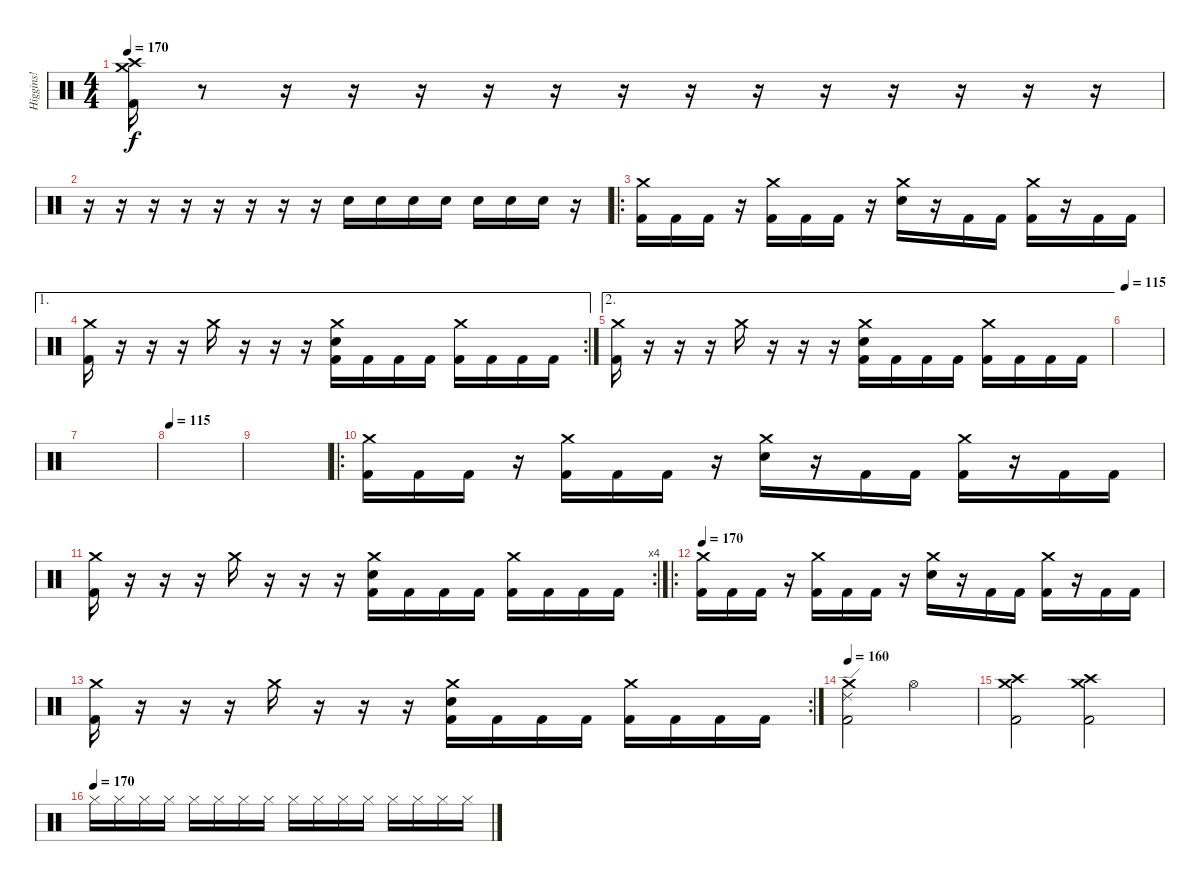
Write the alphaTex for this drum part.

\track ("Higgins!" "Higgins!") {instrument percussion}
\staff {score}
\articulation defaults
\ts (4 4)
\tempo 170
\clef neutral
\ks c
("Crash medium (hit)" "Crash high (hit)" "Kick (hit) 2").16{dy f} r.8 r.16 r.16 r.16 r.16 r.16 r.16 r.16 r.16 r.16 r.16 r.16 r.16 r.16 |
r.16 r.16 r.16 r.16 r.16 r.16 r.16 r.16 "Snare (hit) 2".16 "Snare (hit) 2".16 "Snare (hit) 2".16 "Snare (hit) 2".16 "Snare (hit) 2".16 "Snare (hit) 2".16 "Snare (hit) 2".16 r.16 |
\ro
("Crash medium (hit)" "Kick (hit) 2").16 "Kick (hit) 2".16 "Kick (hit) 2".16 r.16 ("Crash medium (hit)" "Kick (hit) 2").16 "Kick (hit) 2".16 "Kick (hit) 2".16 r.16 ("Crash medium (hit)" "Snare (hit) 2").16 r.16 "Kick (hit) 2".16 "Kick (hit) 2".16 ("Crash medium (hit)" "Kick (hit) 2").16 r.16 "Kick (hit) 2".16 "Kick (hit) 2".16 |
\ae 1
\rc 2
("Crash medium (hit)" "Kick (hit) 2").16 r.16 r.16 r.16 "Crash medium (hit)".16 r.16 r.16 r.16 ("Crash medium (hit)" "Snare (hit) 2" "Kick (hit) 2").16 "Kick (hit) 2".16 "Kick (hit) 2".16 "Kick (hit) 2".16 ("Crash medium (hit)" "Kick (hit) 2").16 "Kick (hit) 2".16 "Kick (hit) 2".16 "Kick (hit) 2".16 |
\ae 2
("Crash medium (hit)" "Kick (hit) 2").16 r.16 r.16 r.16 "Crash medium (hit)".16 r.16 r.16 r.16 ("Crash medium (hit)" "Snare (hit) 2" "Kick (hit) 2").16 "Kick (hit) 2".16 "Kick (hit) 2".16 "Kick (hit) 2".16 ("Crash medium (hit)" "Kick (hit) 2").16 "Kick (hit) 2".16 "Kick (hit) 2".16 "Kick (hit) 2".16 |
\tempo 115
|
|
\tempo 115
|
|
\ro
("Crash medium (hit)" "Kick (hit) 2").16 "Kick (hit) 2".16 "Kick (hit) 2".16 r.16 ("Crash medium (hit)" "Kick (hit) 2").16 "Kick (hit) 2".16 "Kick (hit) 2".16 r.16 ("Crash medium (hit)" "Snare (hit) 2").16 r.16 "Kick (hit) 2".16 "Kick (hit) 2".16 ("Crash medium (hit)" "Kick (hit) 2").16 r.16 "Kick (hit) 2".16 "Kick (hit) 2".16 |
\rc 4
("Crash medium (hit)" "Kick (hit) 2").16 r.16 r.16 r.16 "Crash medium (hit)".16 r.16 r.16 r.16 ("Crash medium (hit)" "Snare (hit) 2" "Kick (hit) 2").16 "Kick (hit) 2".16 "Kick (hit) 2".16 "Kick (hit) 2".16 ("Crash medium (hit)" "Kick (hit) 2").16 "Kick (hit) 2".16 "Kick (hit) 2".16 "Kick (hit) 2".16 |
\ro
\tempo 170
("Crash medium (hit)" "Kick (hit) 2").16 "Kick (hit) 2".16 "Kick (hit) 2".16 r.16 ("Crash medium (hit)" "Kick (hit) 2").16 "Kick (hit) 2".16 "Kick (hit) 2".16 r.16 ("Crash medium (hit)" "Snare (hit) 2").16 r.16 "Kick (hit) 2".16 "Kick (hit) 2".16 ("Crash medium (hit)" "Kick (hit) 2").16 r.16 "Kick (hit) 2".16 "Kick (hit) 2".16 |
\rc 2
("Crash medium (hit)" "Kick (hit) 2").16 r.16 r.16 r.16 "Crash medium (hit)".16 r.16 r.16 r.16 ("Crash medium (hit)" "Snare (hit) 2" "Kick (hit) 2").16 "Kick (hit) 2".16 "Kick (hit) 2".16 "Kick (hit) 2".16 ("Crash medium (hit)" "Kick (hit) 2").16 "Kick (hit) 2".16 "Kick (hit) 2".16 "Kick (hit) 2".16 |
\tempo 160
("Ride (edge) 2" "Crash medium (hit)" "Kick (hit) 2").2 "Hi-Hat (open)".2 |
("Crash high (hit)" "Crash medium (hit)" "Kick (hit) 2").2 ("Crash high (hit)" "Crash medium (hit)" "Kick (hit) 2").2 |
\tempo 165
\tempo (170)
"Hi-Hat (closed)".16 "Hi-Hat (closed)".16 "Hi-Hat (closed)".16 "Hi-Hat (closed)".16 "Hi-Hat (closed)".16 "Hi-Hat (closed)".16 "Hi-Hat (closed)".16 "Hi-Hat (closed)".16 "Hi-Hat (closed)".16 "Hi-Hat (closed)".16 "Hi-Hat (closed)".16 "Hi-Hat (closed)".16 "Hi-Hat (closed)".16 "Hi-Hat (closed)".16 "Hi-Hat (closed)".16 "Hi-Hat (closed)".16
